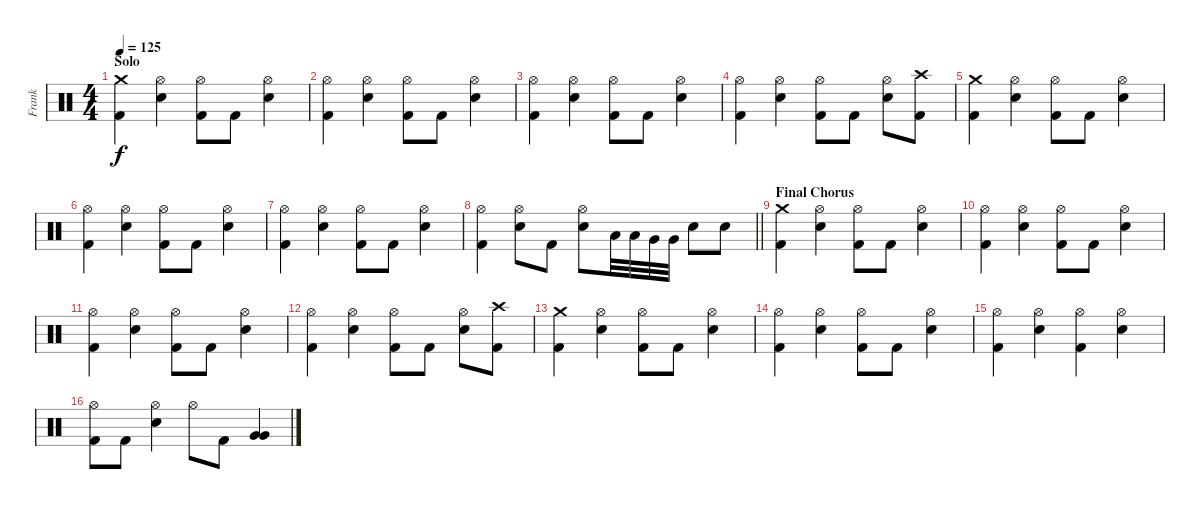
\track ("Frank" "Frank") {instrument percussion}
\staff {score}
\articulation defaults
\ts (4 4)
\section ("" "Solo")
\tempo 125
\clef neutral
\ks c
("Crash medium (hit)" "Kick (hit) 2").4{dy f} ("Hi-Hat (open)" "Electric Snare (hit)").4 ("Hi-Hat (open)" "Kick (hit) 2").8 "Kick (hit) 2".8 ("Hi-Hat (open)" "Electric Snare (hit)").4 |
("Hi-Hat (open)" "Kick (hit) 2").4 ("Hi-Hat (open)" "Electric Snare (hit)").4 ("Hi-Hat (open)" "Kick (hit) 2").8 "Kick (hit) 2".8 ("Hi-Hat (open)" "Electric Snare (hit)").4 |
("Hi-Hat (open)" "Kick (hit) 2").4 ("Hi-Hat (open)" "Electric Snare (hit)").4 ("Hi-Hat (open)" "Kick (hit) 2").8 "Kick (hit) 2".8 ("Hi-Hat (open)" "Electric Snare (hit)").4 |
("Hi-Hat (open)" "Kick (hit) 2").4 ("Hi-Hat (open)" "Electric Snare (hit)").4 ("Hi-Hat (open)" "Kick (hit) 2").8 "Kick (hit) 2".8 ("Hi-Hat (open)" "Electric Snare (hit)").8 ("Crash high (hit)" "Kick (hit) 2").8 |
("Crash medium (hit)" "Kick (hit) 2").4 ("Hi-Hat (open)" "Electric Snare (hit)").4 ("Hi-Hat (open)" "Kick (hit) 2").8 "Kick (hit) 2".8 ("Hi-Hat (open)" "Electric Snare (hit)").4 |
("Hi-Hat (open)" "Kick (hit) 2").4 ("Hi-Hat (open)" "Electric Snare (hit)").4 ("Hi-Hat (open)" "Kick (hit) 2").8 "Kick (hit) 2".8 ("Hi-Hat (open)" "Electric Snare (hit)").4 |
("Hi-Hat (open)" "Kick (hit) 2").4 ("Hi-Hat (open)" "Electric Snare (hit)").4 ("Hi-Hat (open)" "Kick (hit) 2").8 "Kick (hit) 2".8 ("Hi-Hat (open)" "Electric Snare (hit)").4 |
\barLineRight lightlight
("Hi-Hat (open)" "Kick (hit) 2").4 ("Hi-Hat (open)" "Electric Snare (hit)").8 "Kick (hit) 2".8 ("Hi-Hat (open)" "Electric Snare (hit)").8 "Low Tom (hit)".32 "Low Tom (hit)".32 "Very Low Tom (hit)".32 "Very Low Tom (hit)".32 "Electric Snare (hit)".8 "Electric Snare (hit)".8 |
\section ("" "Final Chorus")
("Crash medium (hit)" "Kick (hit) 2").4 ("Hi-Hat (open)" "Electric Snare (hit)").4 ("Hi-Hat (open)" "Kick (hit) 2").8 "Kick (hit) 2".8 ("Hi-Hat (open)" "Electric Snare (hit)").4 |
("Hi-Hat (open)" "Kick (hit) 2").4 ("Hi-Hat (open)" "Electric Snare (hit)").4 ("Hi-Hat (open)" "Kick (hit) 2").8 "Kick (hit) 2".8 ("Hi-Hat (open)" "Electric Snare (hit)").4 |
("Hi-Hat (open)" "Kick (hit) 2").4 ("Hi-Hat (open)" "Electric Snare (hit)").4 ("Hi-Hat (open)" "Kick (hit) 2").8 "Kick (hit) 2".8 ("Hi-Hat (open)" "Electric Snare (hit)").4 |
("Hi-Hat (open)" "Kick (hit) 2").4 ("Hi-Hat (open)" "Electric Snare (hit)").4 ("Hi-Hat (open)" "Kick (hit) 2").8 "Kick (hit) 2".8 ("Hi-Hat (open)" "Electric Snare (hit)").8 ("Crash high (hit)" "Kick (hit) 2").8 |
("Crash medium (hit)" "Kick (hit) 2").4 ("Hi-Hat (open)" "Electric Snare (hit)").4 ("Hi-Hat (open)" "Kick (hit) 2").8 "Kick (hit) 2".8 ("Hi-Hat (open)" "Electric Snare (hit)").4 |
("Hi-Hat (open)" "Kick (hit) 2").4 ("Hi-Hat (open)" "Electric Snare (hit)").4 ("Hi-Hat (open)" "Kick (hit) 2").8 "Kick (hit) 2".8 ("Hi-Hat (open)" "Electric Snare (hit)").4 |
("Hi-Hat (open)" "Kick (hit) 2").4 ("Hi-Hat (open)" "Electric Snare (hit)").4 ("Hi-Hat (open)" "Kick (hit) 2").4 ("Hi-Hat (open)" "Electric Snare (hit)").4 |
("Hi-Hat (open)" "Kick (hit) 2").8 "Kick (hit) 2".8 ("Hi-Hat (open)" "Electric Snare (hit)").4 "Hi-Hat (open)".8 "Kick (hit) 2".8 ("Very Low Tom (hit)" "Very Low Tom (hit)").4
